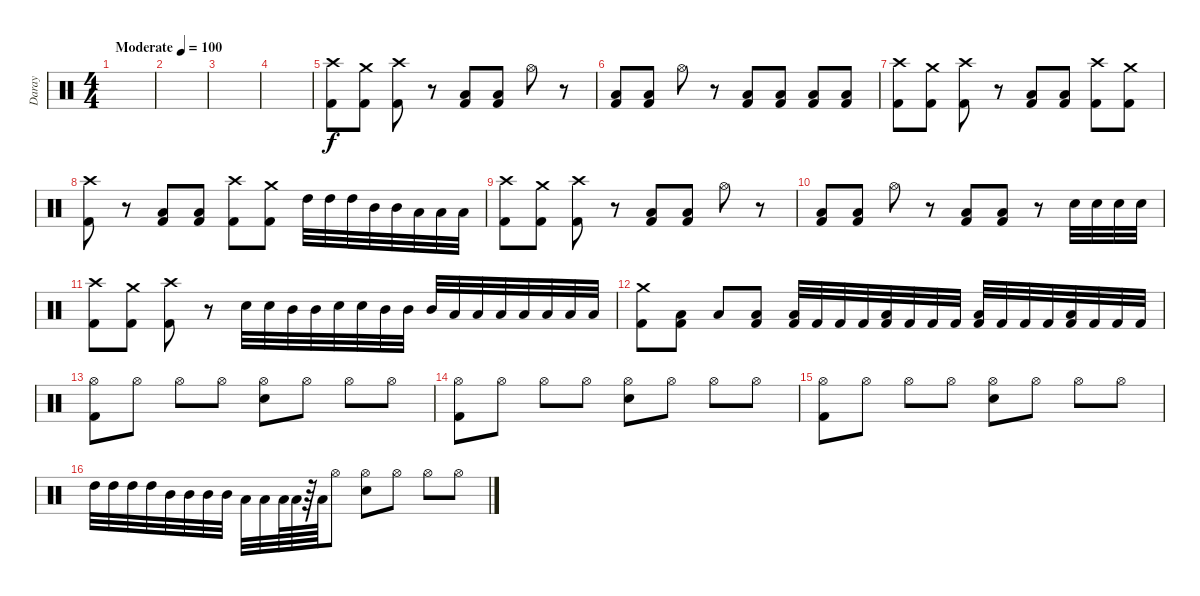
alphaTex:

\track ("Daray" "Daray") {instrument percussion}
\staff {score}
\articulation defaults
\ts (4 4)
\tempo (100 "Moderate")
\clef neutral
\ks c
|
|
|
|
("Crash high (hit)" "Kick (hit) 2").8 ("Crash medium (hit)" "Kick (hit) 2").8 ("Crash high (hit)" "Kick (hit) 2").8 r.8 ("Low Floor Tom (hit)" "Kick (hit) 2").8 ("Low Floor Tom (hit)" "Kick (hit) 2").8 "Hi-Hat (open)".8 r.8 |
("Low Floor Tom (hit)" "Kick (hit) 2").8 ("Low Floor Tom (hit)" "Kick (hit) 2").8 "Hi-Hat (open)".8 r.8 ("Low Floor Tom (hit)" "Kick (hit) 2").8 ("Low Floor Tom (hit)" "Kick (hit) 2").8 ("Low Floor Tom (hit)" "Kick (hit) 2").8 ("Low Floor Tom (hit)" "Kick (hit) 2").8 |
("Crash high (hit)" "Kick (hit) 2").8 ("Crash medium (hit)" "Kick (hit) 2").8 ("Crash high (hit)" "Kick (hit) 2").8 r.8 ("Low Floor Tom (hit)" "Kick (hit) 2").8 ("Low Floor Tom (hit)" "Kick (hit) 2").8 ("Crash high (hit)" "Kick (hit) 2").8 ("Crash medium (hit)" "Kick (hit) 2").8 |
("Crash high (hit)" "Kick (hit) 2").8 r.8 ("Low Floor Tom (hit)" "Kick (hit) 2").8 ("Low Floor Tom (hit)" "Kick (hit) 2").8 ("Crash high (hit)" "Kick (hit) 2").8 ("Crash medium (hit)" "Kick (hit) 2").8 "High Tom (hit)".32 "High Tom (hit)".32 "High Tom (hit)".32 "Mid Tom (hit)".32 "Mid Tom (hit)".32 "Low Floor Tom (hit)".32 "Low Floor Tom (hit)".32 "Low Floor Tom (hit)".32 |
("Crash high (hit)" "Kick (hit) 2").8 ("Crash medium (hit)" "Kick (hit) 2").8 ("Crash high (hit)" "Kick (hit) 2").8 r.8 ("Low Floor Tom (hit)" "Kick (hit) 2").8 ("Low Floor Tom (hit)" "Kick (hit) 2").8 "Hi-Hat (open)".8 r.8 |
("Low Floor Tom (hit)" "Kick (hit) 2").8 ("Low Floor Tom (hit)" "Kick (hit) 2").8 "Hi-Hat (open)".8 r.8 ("Low Floor Tom (hit)" "Kick (hit) 2").8 ("Low Floor Tom (hit)" "Kick (hit) 2").8 r.8 "Electric Snare (hit)".32 "Electric Snare (hit)".32 "Electric Snare (hit)".32 "Electric Snare (hit)".32 |
("Crash high (hit)" "Kick (hit) 2").8 ("Crash medium (hit)" "Kick (hit) 2").8 ("Crash high (hit)" "Kick (hit) 2").8 r.8 "Electric Snare (hit)".32 "Electric Snare (hit)".32 "Mid Tom (hit)".32 "Mid Tom (hit)".32 "Electric Snare (hit)".32 "Electric Snare (hit)".32 "Mid Tom (hit)".32 "Mid Tom (hit)".32 "Mid Tom (hit)".32 "Low Tom (hit)".32 "Low Tom (hit)".32 "Low Tom (hit)".32 "Low Tom (hit)".32 "Low Floor Tom (hit)".32 "Low Floor Tom (hit)".32 "Low Floor Tom (hit)".32 |
("Crash medium (hit)" "Kick (hit) 2").8 ("Low Tom (hit)" "Kick (hit) 2").8 "Low Tom (hit)".8 ("Low Tom (hit)" "Kick (hit) 2").8 ("Low Tom (hit)" "Kick (hit) 2").32 "Kick (hit) 2".32 "Kick (hit) 2".32 "Kick (hit) 2".32 ("Low Tom (hit)" "Kick (hit) 2").32 "Kick (hit) 2".32 "Kick (hit) 2".32 "Kick (hit) 2".32 ("Low Tom (hit)" "Kick (hit) 2").32 "Kick (hit) 2".32 "Kick (hit) 2".32 "Kick (hit) 2".32 ("Low Tom (hit)" "Kick (hit) 2").32 "Kick (hit) 2".32 "Kick (hit) 2".32 "Kick (hit) 2".32 |
("Hi-Hat (open)" "Kick (hit) 2").8 "Hi-Hat (open)".8 "Hi-Hat (open)".8 "Hi-Hat (open)".8 ("Hi-Hat (open)" "Electric Snare (hit)").8 "Hi-Hat (open)".8 "Hi-Hat (open)".8 "Hi-Hat (open)".8 |
("Hi-Hat (open)" "Kick (hit) 2").8 "Hi-Hat (open)".8 "Hi-Hat (open)".8 "Hi-Hat (open)".8 ("Hi-Hat (open)" "Electric Snare (hit)").8 "Hi-Hat (open)".8 "Hi-Hat (open)".8 "Hi-Hat (open)".8 |
("Hi-Hat (open)" "Kick (hit) 2").8 "Hi-Hat (open)".8 "Hi-Hat (open)".8 "Hi-Hat (open)".8 ("Hi-Hat (open)" "Electric Snare (hit)").8 "Hi-Hat (open)".8 "Hi-Hat (open)".8 "Hi-Hat (open)".8 |
"High Tom (hit)".32 "High Tom (hit)".32 "High Tom (hit)".32 "High Tom (hit)".32 "Mid Tom (hit)".32 "Mid Tom (hit)".32 "Mid Tom (hit)".32 "Mid Tom (hit)".32 "Low Tom (hit)".32 "Low Tom (hit)".32 "Low Tom (hit)".64 "Low Tom (hit)".64 r.64 "Low Tom (hit)".64 "Hi-Hat (open)".8 ("Hi-Hat (open)" "Electric Snare (hit)").8 "Hi-Hat (open)".8 "Hi-Hat (open)".8 "Hi-Hat (open)".8
